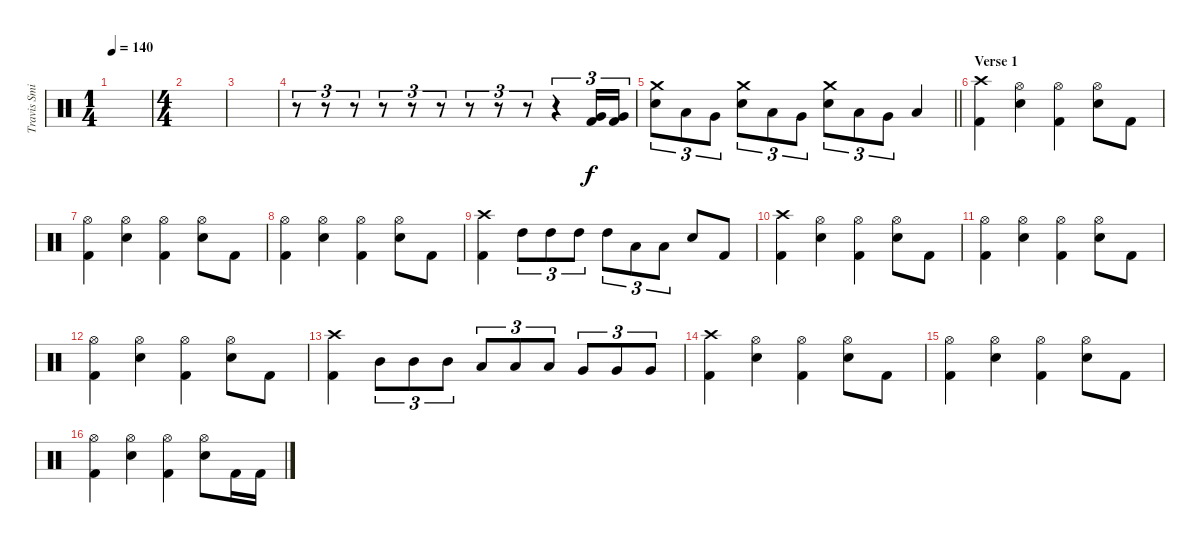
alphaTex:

\track ("Travis Smith" "Travis Smi") {instrument percussion}
\staff {score}
\articulation defaults
\ts (1 4)
\tempo 140
\clef neutral
\ks c
|
\ts (4 4)
|
|
r.8{tu (3 2)} r.8{tu (3 2)} r.8{tu (3 2)} r.8{tu (3 2)} r.8{tu (3 2)} r.8{tu (3 2)} r.8{tu (3 2)} r.8{tu (3 2)} r.8{tu (3 2)} r.4{tu (3 2)} ("Very Low Tom (hit)" "Kick (hit) 2").16{tu (3 2)} ("Very Low Tom (hit)" "Kick (hit) 2").16{tu (3 2)} |
\barLineRight lightlight
("Crash medium (hit)" "Electric Snare (hit)").8{tu (3 2)} "Low Tom (hit)".8{tu (3 2)} "Very Low Tom (hit)".8{tu (3 2)} ("Crash medium (hit)" "Electric Snare (hit)").8{tu (3 2)} "Low Tom (hit)".8{tu (3 2)} "Very Low Tom (hit)".8{tu (3 2)} ("Crash medium (hit)" "Electric Snare (hit)").8{tu (3 2)} "Low Tom (hit)".8{tu (3 2)} "Very Low Tom (hit)".8{tu (3 2)} "Low Floor Tom (hit)".4 |
\section ("" "Verse 1")
("Crash high (hit)" "Kick (hit) 2").4 ("Hi-Hat (open)" "Electric Snare (hit)").4 ("Hi-Hat (open)" "Kick (hit) 2").4 ("Hi-Hat (open)" "Electric Snare (hit)").8 "Kick (hit) 2".8 |
("Hi-Hat (open)" "Kick (hit) 2").4 ("Hi-Hat (open)" "Electric Snare (hit)").4 ("Hi-Hat (open)" "Kick (hit) 2").4 ("Hi-Hat (open)" "Electric Snare (hit)").8 "Kick (hit) 2".8 |
("Hi-Hat (open)" "Kick (hit) 2").4 ("Hi-Hat (open)" "Electric Snare (hit)").4 ("Hi-Hat (open)" "Kick (hit) 2").4 ("Hi-Hat (open)" "Electric Snare (hit)").8 "Kick (hit) 2".8 |
("Crash high (hit)" "Kick (hit) 2").4 "High Tom (hit)".8{tu (3 2)} "High Tom (hit)".8{tu (3 2)} "High Tom (hit)".8{tu (3 2)} "High Tom (hit)".8{tu (3 2)} "Low Tom (hit)".8{tu (3 2)} "Low Tom (hit)".8{tu (3 2)} "Electric Snare (hit)".8 "Kick (hit) 2".8 |
("Crash high (hit)" "Kick (hit) 2").4 ("Hi-Hat (open)" "Electric Snare (hit)").4 ("Hi-Hat (open)" "Kick (hit) 2").4 ("Hi-Hat (open)" "Electric Snare (hit)").8 "Kick (hit) 2".8 |
("Hi-Hat (open)" "Kick (hit) 2").4 ("Hi-Hat (open)" "Electric Snare (hit)").4 ("Hi-Hat (open)" "Kick (hit) 2").4 ("Hi-Hat (open)" "Electric Snare (hit)").8 "Kick (hit) 2".8 |
("Hi-Hat (open)" "Kick (hit) 2").4 ("Hi-Hat (open)" "Electric Snare (hit)").4 ("Hi-Hat (open)" "Kick (hit) 2").4 ("Hi-Hat (open)" "Electric Snare (hit)").8 "Kick (hit) 2".8 |
("Crash high (hit)" "Kick (hit) 2").4 "Mid Tom (hit)".8{tu (3 2)} "Mid Tom (hit)".8{tu (3 2)} "Mid Tom (hit)".8{tu (3 2)} "Low Tom (hit)".8{tu (3 2)} "Low Tom (hit)".8{tu (3 2)} "Low Tom (hit)".8{tu (3 2)} "Very Low Tom (hit)".8{tu (3 2)} "Very Low Tom (hit)".8{tu (3 2)} "Very Low Tom (hit)".8{tu (3 2)} |
("Crash high (hit)" "Kick (hit) 2").4 ("Hi-Hat (open)" "Electric Snare (hit)").4 ("Hi-Hat (open)" "Kick (hit) 2").4 ("Hi-Hat (open)" "Electric Snare (hit)").8 "Kick (hit) 2".8 |
("Hi-Hat (open)" "Kick (hit) 2").4 ("Hi-Hat (open)" "Electric Snare (hit)").4 ("Hi-Hat (open)" "Kick (hit) 2").4 ("Hi-Hat (open)" "Electric Snare (hit)").8 "Kick (hit) 2".8 |
("Hi-Hat (open)" "Kick (hit) 2").4 ("Hi-Hat (open)" "Electric Snare (hit)").4 ("Hi-Hat (open)" "Kick (hit) 2").4 ("Hi-Hat (open)" "Electric Snare (hit)").8 "Kick (hit) 2".16 "Kick (hit) 2".16
